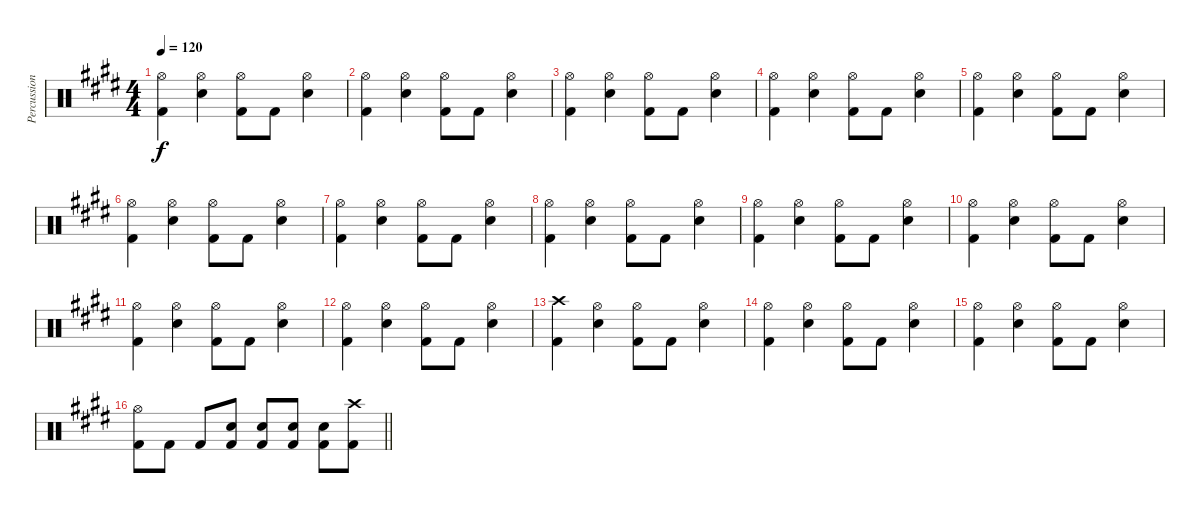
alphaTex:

\track ("Percussion" "Percussion") {instrument percussion}
\staff {score}
\articulation defaults
\ts (4 4)
\tempo 120
\clef neutral
\ks c#minor
("Hi-Hat (open)" "Kick (hit) 2").4{dy f} ("Hi-Hat (open)" "Snare (hit) 2").4 ("Hi-Hat (open)" "Kick (hit) 2").8 "Kick (hit) 2".8 ("Hi-Hat (open)" "Snare (hit) 2").4 |
\ks e
("Hi-Hat (open)" "Kick (hit) 2").4 ("Hi-Hat (open)" "Snare (hit) 2").4 ("Hi-Hat (open)" "Kick (hit) 2").8 "Kick (hit) 2".8 ("Hi-Hat (open)" "Snare (hit) 2").4 |
\ks c#minor
("Hi-Hat (open)" "Kick (hit) 2").4 ("Hi-Hat (open)" "Snare (hit) 2").4 ("Hi-Hat (open)" "Kick (hit) 2").8 "Kick (hit) 2".8 ("Hi-Hat (open)" "Snare (hit) 2").4 |
\ks e
("Hi-Hat (open)" "Kick (hit) 2").4 ("Hi-Hat (open)" "Snare (hit) 2").4 ("Hi-Hat (open)" "Kick (hit) 2").8 "Kick (hit) 2".8 ("Hi-Hat (open)" "Snare (hit) 2").4 |
\ks c#minor
("Hi-Hat (open)" "Kick (hit) 2").4 ("Hi-Hat (open)" "Snare (hit) 2").4 ("Hi-Hat (open)" "Kick (hit) 2").8 "Kick (hit) 2".8 ("Hi-Hat (open)" "Snare (hit) 2").4 |
\ks e
("Hi-Hat (open)" "Kick (hit) 2").4 ("Hi-Hat (open)" "Snare (hit) 2").4 ("Hi-Hat (open)" "Kick (hit) 2").8 "Kick (hit) 2".8 ("Hi-Hat (open)" "Snare (hit) 2").4 |
\ks c#minor
("Hi-Hat (open)" "Kick (hit) 2").4 ("Hi-Hat (open)" "Snare (hit) 2").4 ("Hi-Hat (open)" "Kick (hit) 2").8 "Kick (hit) 2".8 ("Hi-Hat (open)" "Snare (hit) 2").4 |
\ks e
("Hi-Hat (open)" "Kick (hit) 2").4 ("Hi-Hat (open)" "Snare (hit) 2").4 ("Hi-Hat (open)" "Kick (hit) 2").8 "Kick (hit) 2".8 ("Hi-Hat (open)" "Snare (hit) 2").4 |
\ks c#minor
("Hi-Hat (open)" "Kick (hit) 2").4 ("Hi-Hat (open)" "Snare (hit) 2").4 ("Hi-Hat (open)" "Kick (hit) 2").8 "Kick (hit) 2".8 ("Hi-Hat (open)" "Snare (hit) 2").4 |
\ks e
("Hi-Hat (open)" "Kick (hit) 2").4 ("Hi-Hat (open)" "Snare (hit) 2").4 ("Hi-Hat (open)" "Kick (hit) 2").8 "Kick (hit) 2".8 ("Hi-Hat (open)" "Snare (hit) 2").4 |
\ks c#minor
("Hi-Hat (open)" "Kick (hit) 2").4 ("Hi-Hat (open)" "Snare (hit) 2").4 ("Hi-Hat (open)" "Kick (hit) 2").8 "Kick (hit) 2".8 ("Hi-Hat (open)" "Snare (hit) 2").4 |
\ks e
("Hi-Hat (open)" "Kick (hit) 2").4 ("Hi-Hat (open)" "Snare (hit) 2").4 ("Hi-Hat (open)" "Kick (hit) 2").8 "Kick (hit) 2".8 ("Hi-Hat (open)" "Snare (hit) 2").4 |
("Crash high (hit)" "Kick (hit) 2").4 ("Hi-Hat (open)" "Snare (hit) 2").4 ("Hi-Hat (open)" "Kick (hit) 2").8 "Kick (hit) 2".8 ("Hi-Hat (open)" "Snare (hit) 2").4 |
("Hi-Hat (open)" "Kick (hit) 2").4 ("Hi-Hat (open)" "Snare (hit) 2").4 ("Hi-Hat (open)" "Kick (hit) 2").8 "Kick (hit) 2".8 ("Hi-Hat (open)" "Snare (hit) 2").4 |
("Hi-Hat (open)" "Kick (hit) 2").4 ("Hi-Hat (open)" "Snare (hit) 2").4 ("Hi-Hat (open)" "Kick (hit) 2").8 "Kick (hit) 2".8 ("Hi-Hat (open)" "Snare (hit) 2").4 |
\barLineRight lightlight
\ks c#minor
("Hi-Hat (open)" "Kick (hit) 2").8 "Kick (hit) 2".8 "Kick (hit) 2".8 ("Snare (hit) 2" "Kick (hit) 2").8 ("Snare (hit) 2" "Kick (hit) 2").8 ("Snare (hit) 2" "Kick (hit) 2").8 ("Snare (hit) 2" "Kick (hit) 2").8 ("Crash high (hit)" "Kick (hit) 2").8
